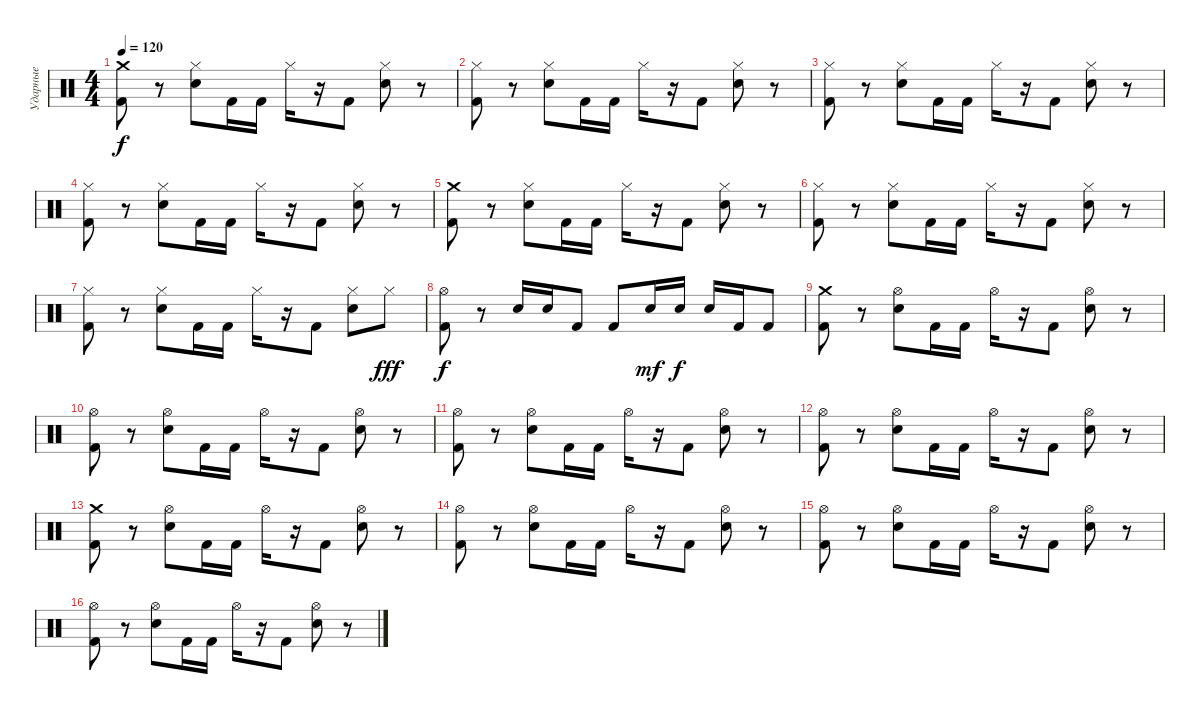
\track ("Ударные" "Ударные") {instrument percussion}
\staff {score}
\articulation defaults
\ts (4 4)
\tempo 120
\clef neutral
\ks c
("Crash medium (hit)" "Kick (hit) 2").8{dy f} r.8 ("Hi-Hat (closed)" "Snare (hit) 2").8 "Kick (hit) 2".16 "Kick (hit) 2".16 "Hi-Hat (closed)".16 r.16 "Kick (hit) 2".8 ("Hi-Hat (closed)" "Snare (hit) 2").8 r.8 |
("Hi-Hat (closed)" "Kick (hit) 2").8 r.8 ("Hi-Hat (closed)" "Snare (hit) 2").8 "Kick (hit) 2".16 "Kick (hit) 2".16 "Hi-Hat (closed)".16 r.16 "Kick (hit) 2".8 ("Hi-Hat (closed)" "Snare (hit) 2").8 r.8 |
("Hi-Hat (closed)" "Kick (hit) 2").8 r.8 ("Hi-Hat (closed)" "Snare (hit) 2").8 "Kick (hit) 2".16 "Kick (hit) 2".16 "Hi-Hat (closed)".16 r.16 "Kick (hit) 2".8 ("Hi-Hat (closed)" "Snare (hit) 2").8 r.8 |
("Hi-Hat (closed)" "Kick (hit) 2").8 r.8 ("Hi-Hat (closed)" "Snare (hit) 2").8 "Kick (hit) 2".16 "Kick (hit) 2".16 "Hi-Hat (closed)".16 r.16 "Kick (hit) 2".8 ("Hi-Hat (closed)" "Snare (hit) 2").8 r.8 |
("Crash medium (hit)" "Kick (hit) 2").8 r.8 ("Hi-Hat (closed)" "Snare (hit) 2").8 "Kick (hit) 2".16 "Kick (hit) 2".16 "Hi-Hat (closed)".16 r.16 "Kick (hit) 2".8 ("Hi-Hat (closed)" "Snare (hit) 2").8 r.8 |
("Hi-Hat (closed)" "Kick (hit) 2").8 r.8 ("Hi-Hat (closed)" "Snare (hit) 2").8 "Kick (hit) 2".16 "Kick (hit) 2".16 "Hi-Hat (closed)".16 r.16 "Kick (hit) 2".8 ("Hi-Hat (closed)" "Snare (hit) 2").8 r.8 |
("Hi-Hat (closed)" "Kick (hit) 2").8 r.8 ("Hi-Hat (closed)" "Snare (hit) 2").8 "Kick (hit) 2".16 "Kick (hit) 2".16 "Hi-Hat (closed)".16 r.16 "Kick (hit) 2".8 ("Hi-Hat (closed)" "Snare (hit) 2").8 "Hi-Hat (closed)".8{dy fff} |
("Hi-Hat (open)" "Kick (hit) 2").8{dy f} r.8 "Snare (hit) 2".16 "Snare (hit) 2".16 "Kick (hit) 2".8 "Kick (hit) 2".8 "Snare (hit) 2".16{dy mf} "Snare (hit) 2".16{dy f} "Snare (hit) 2".16 "Kick (hit) 2".16 "Kick (hit) 2".8 |
("Crash medium (hit)" "Kick (hit) 2").8 r.8 ("Hi-Hat (open)" "Snare (hit) 2").8 "Kick (hit) 2".16 "Kick (hit) 2".16 "Hi-Hat (open)".16 r.16 "Kick (hit) 2".8 ("Hi-Hat (open)" "Snare (hit) 2").8 r.8 |
("Hi-Hat (open)" "Kick (hit) 2").8 r.8 ("Hi-Hat (open)" "Snare (hit) 2").8 "Kick (hit) 2".16 "Kick (hit) 2".16 "Hi-Hat (open)".16 r.16 "Kick (hit) 2".8 ("Hi-Hat (open)" "Snare (hit) 2").8 r.8 |
("Hi-Hat (open)" "Kick (hit) 2").8 r.8 ("Hi-Hat (open)" "Snare (hit) 2").8 "Kick (hit) 2".16 "Kick (hit) 2".16 "Hi-Hat (open)".16 r.16 "Kick (hit) 2".8 ("Hi-Hat (open)" "Snare (hit) 2").8 r.8 |
("Hi-Hat (open)" "Kick (hit) 2").8 r.8 ("Hi-Hat (open)" "Snare (hit) 2").8 "Kick (hit) 2".16 "Kick (hit) 2".16 "Hi-Hat (open)".16 r.16 "Kick (hit) 2".8 ("Hi-Hat (open)" "Snare (hit) 2").8 r.8 |
("Crash medium (hit)" "Kick (hit) 2").8 r.8 ("Hi-Hat (open)" "Snare (hit) 2").8 "Kick (hit) 2".16 "Kick (hit) 2".16 "Hi-Hat (open)".16 r.16 "Kick (hit) 2".8 ("Hi-Hat (open)" "Snare (hit) 2").8 r.8 |
("Hi-Hat (open)" "Kick (hit) 2").8 r.8 ("Hi-Hat (open)" "Snare (hit) 2").8 "Kick (hit) 2".16 "Kick (hit) 2".16 "Hi-Hat (open)".16 r.16 "Kick (hit) 2".8 ("Hi-Hat (open)" "Snare (hit) 2").8 r.8 |
("Hi-Hat (open)" "Kick (hit) 2").8 r.8 ("Hi-Hat (open)" "Snare (hit) 2").8 "Kick (hit) 2".16 "Kick (hit) 2".16 "Hi-Hat (open)".16 r.16 "Kick (hit) 2".8 ("Hi-Hat (open)" "Snare (hit) 2").8 r.8 |
("Hi-Hat (open)" "Kick (hit) 2").8 r.8 ("Hi-Hat (open)" "Snare (hit) 2").8 "Kick (hit) 2".16 "Kick (hit) 2".16 "Hi-Hat (open)".16 r.16 "Kick (hit) 2".8 ("Hi-Hat (open)" "Snare (hit) 2").8 r.8
